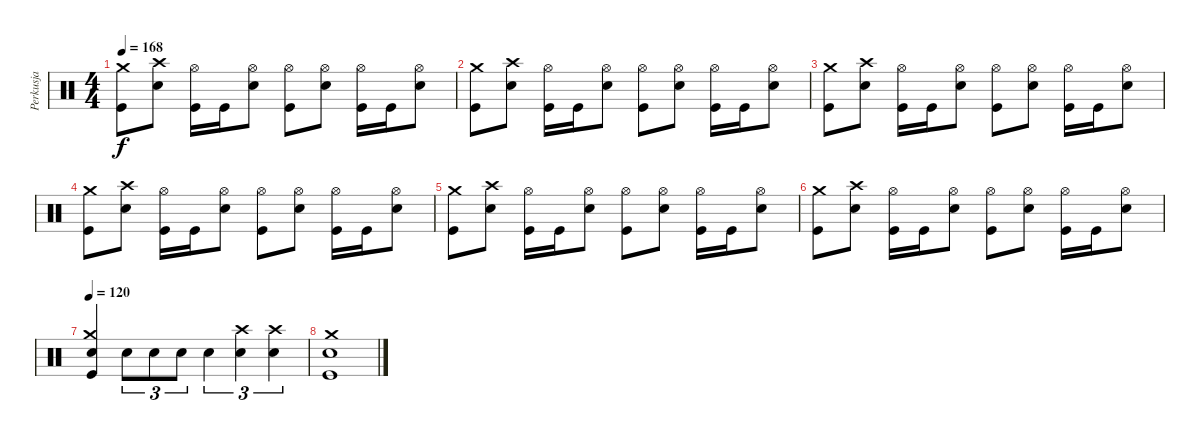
\track ("Perkusja" "Perkusja") {instrument percussion}
\staff {score}
\articulation defaults
\ts (4 4)
\tempo 168
\clef neutral
\ks c
("Kick (hit)" "Crash medium (hit)").8{dy f} ("Crash high (hit)" "Snare (hit) 2").8 ("Kick (hit)" "Hi-Hat (open)").16 "Kick (hit)".16 ("Hi-Hat (open)" "Snare (hit) 2").8 ("Kick (hit)" "Hi-Hat (open)").8 ("Hi-Hat (open)" "Snare (hit) 2").8 ("Kick (hit)" "Hi-Hat (open)").16 "Kick (hit)".16 ("Hi-Hat (open)" "Snare (hit) 2").8 |
("Kick (hit)" "Crash medium (hit)").8 ("Crash high (hit)" "Snare (hit) 2").8 ("Kick (hit)" "Hi-Hat (open)").16 "Kick (hit)".16 ("Hi-Hat (open)" "Snare (hit) 2").8 ("Kick (hit)" "Hi-Hat (open)").8 ("Hi-Hat (open)" "Snare (hit) 2").8 ("Kick (hit)" "Hi-Hat (open)").16 "Kick (hit)".16 ("Hi-Hat (open)" "Snare (hit) 2").8 |
("Kick (hit)" "Crash medium (hit)").8 ("Crash high (hit)" "Snare (hit) 2").8 ("Kick (hit)" "Hi-Hat (open)").16 "Kick (hit)".16 ("Hi-Hat (open)" "Snare (hit) 2").8 ("Kick (hit)" "Hi-Hat (open)").8 ("Hi-Hat (open)" "Snare (hit) 2").8 ("Kick (hit)" "Hi-Hat (open)").16 "Kick (hit)".16 ("Hi-Hat (open)" "Snare (hit) 2").8 |
("Kick (hit)" "Crash medium (hit)").8 ("Crash high (hit)" "Snare (hit) 2").8 ("Kick (hit)" "Hi-Hat (open)").16 "Kick (hit)".16 ("Hi-Hat (open)" "Snare (hit) 2").8 ("Kick (hit)" "Hi-Hat (open)").8 ("Hi-Hat (open)" "Snare (hit) 2").8 ("Kick (hit)" "Hi-Hat (open)").16 "Kick (hit)".16 ("Hi-Hat (open)" "Snare (hit) 2").8 |
("Kick (hit)" "Crash medium (hit)").8 ("Crash high (hit)" "Snare (hit) 2").8 ("Kick (hit)" "Hi-Hat (open)").16 "Kick (hit)".16 ("Hi-Hat (open)" "Snare (hit) 2").8 ("Kick (hit)" "Hi-Hat (open)").8 ("Hi-Hat (open)" "Snare (hit) 2").8 ("Kick (hit)" "Hi-Hat (open)").16 "Kick (hit)".16 ("Hi-Hat (open)" "Snare (hit) 2").8 |
("Kick (hit)" "Crash medium (hit)").8 ("Crash high (hit)" "Snare (hit) 2").8 ("Kick (hit)" "Hi-Hat (open)").16 "Kick (hit)".16 ("Hi-Hat (open)" "Snare (hit) 2").8 ("Kick (hit)" "Hi-Hat (open)").8 ("Hi-Hat (open)" "Snare (hit) 2").8 ("Kick (hit)" "Hi-Hat (open)").16 "Kick (hit)".16 ("Hi-Hat (open)" "Snare (hit) 2").8 |
\tempo 120
("Kick (hit)" "Crash medium (hit)" "Snare (hit) 2").4 "Snare (hit) 2".8{tu (3 2)} "Snare (hit) 2".8{tu (3 2)} "Snare (hit) 2".8{tu (3 2)} "Snare (hit) 2".4{tu (3 2)} ("Crash high (hit)" "Snare (hit) 2").4{tu (3 2)} ("Crash high (hit)" "Snare (hit) 2").4{tu (3 2)} |
("Kick (hit)" "Crash medium (hit)" "Snare (hit) 2").1
